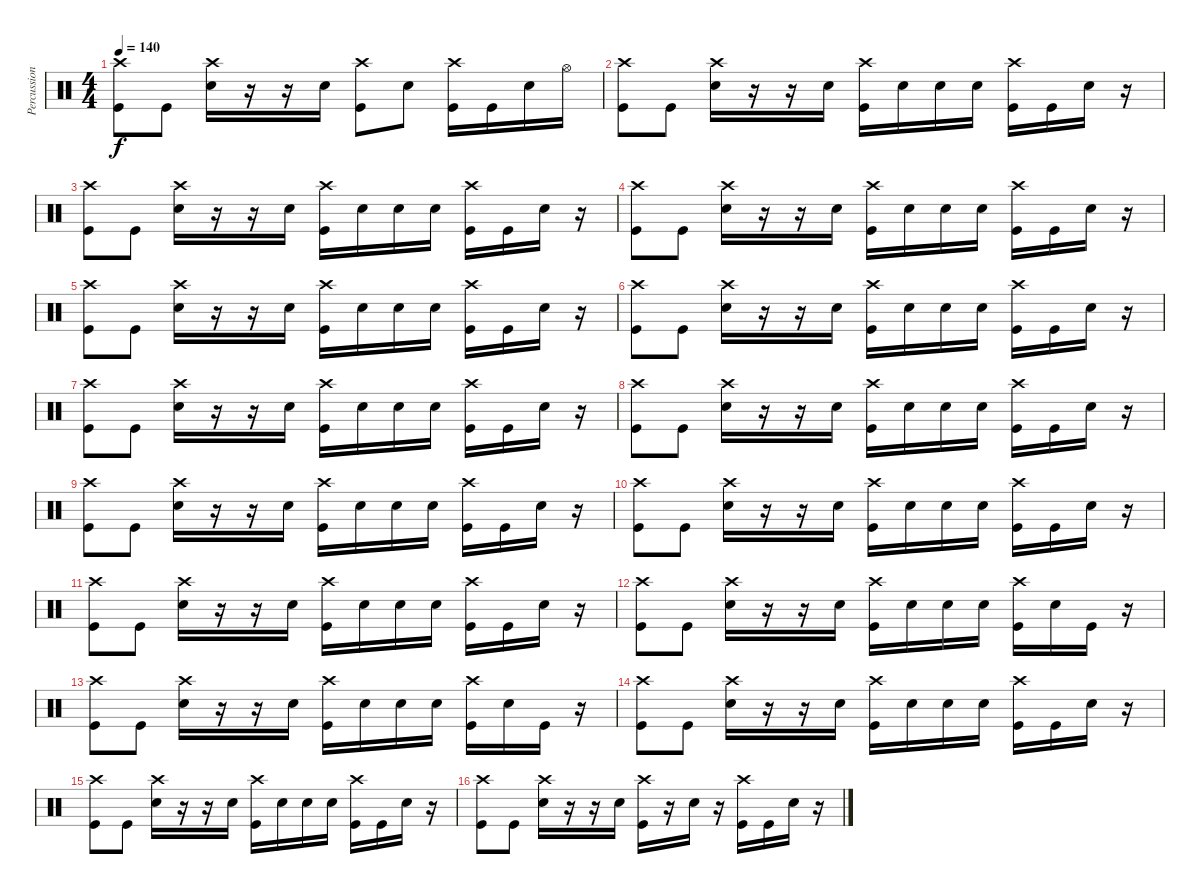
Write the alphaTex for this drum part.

\track ("Percussion" "Percussion") {instrument percussion}
\staff {score}
\articulation defaults
\ts (4 4)
\tempo 140
\clef neutral
\ks c
("Crash high (hit)" "Kick (hit)").8{dy f} "Kick (hit)".8 ("Crash high (hit)" "Snare (hit) 2").16 r.16 r.16 "Snare (hit) 2".16 ("Crash high (hit)" "Kick (hit)").8 "Snare (hit) 2".8 ("Crash high (hit)" "Kick (hit)").16 "Kick (hit)".16 "Snare (hit) 2".16 "Hi-Hat (open)".16 |
("Crash high (hit)" "Kick (hit)").8 "Kick (hit)".8 ("Crash high (hit)" "Snare (hit) 2").16 r.16 r.16 "Snare (hit) 2".16 ("Crash high (hit)" "Kick (hit)").16 "Snare (hit) 2".16 "Snare (hit) 2".16 "Snare (hit) 2".16 ("Crash high (hit)" "Kick (hit)").16 "Kick (hit)".16 "Snare (hit) 2".16 r.16 |
("Crash high (hit)" "Kick (hit)").8 "Kick (hit)".8 ("Crash high (hit)" "Snare (hit) 2").16 r.16 r.16 "Snare (hit) 2".16 ("Crash high (hit)" "Kick (hit)").16 "Snare (hit) 2".16 "Snare (hit) 2".16 "Snare (hit) 2".16 ("Crash high (hit)" "Kick (hit)").16 "Kick (hit)".16 "Snare (hit) 2".16 r.16 |
("Crash high (hit)" "Kick (hit)").8 "Kick (hit)".8 ("Crash high (hit)" "Snare (hit) 2").16 r.16 r.16 "Snare (hit) 2".16 ("Crash high (hit)" "Kick (hit)").16 "Snare (hit) 2".16 "Snare (hit) 2".16 "Snare (hit) 2".16 ("Crash high (hit)" "Kick (hit)").16 "Kick (hit)".16 "Snare (hit) 2".16 r.16 |
("Crash high (hit)" "Kick (hit)").8 "Kick (hit)".8 ("Crash high (hit)" "Snare (hit) 2").16 r.16 r.16 "Snare (hit) 2".16 ("Crash high (hit)" "Kick (hit)").16 "Snare (hit) 2".16 "Snare (hit) 2".16 "Snare (hit) 2".16 ("Crash high (hit)" "Kick (hit)").16 "Kick (hit)".16 "Snare (hit) 2".16 r.16 |
("Crash high (hit)" "Kick (hit)").8 "Kick (hit)".8 ("Crash high (hit)" "Snare (hit) 2").16 r.16 r.16 "Snare (hit) 2".16 ("Crash high (hit)" "Kick (hit)").16 "Snare (hit) 2".16 "Snare (hit) 2".16 "Snare (hit) 2".16 ("Crash high (hit)" "Kick (hit)").16 "Kick (hit)".16 "Snare (hit) 2".16 r.16 |
("Crash high (hit)" "Kick (hit)").8 "Kick (hit)".8 ("Crash high (hit)" "Snare (hit) 2").16 r.16 r.16 "Snare (hit) 2".16 ("Crash high (hit)" "Kick (hit)").16 "Snare (hit) 2".16 "Snare (hit) 2".16 "Snare (hit) 2".16 ("Crash high (hit)" "Kick (hit)").16 "Kick (hit)".16 "Snare (hit) 2".16 r.16 |
("Crash high (hit)" "Kick (hit)").8 "Kick (hit)".8 ("Crash high (hit)" "Snare (hit) 2").16 r.16 r.16 "Snare (hit) 2".16 ("Crash high (hit)" "Kick (hit)").16 "Snare (hit) 2".16 "Snare (hit) 2".16 "Snare (hit) 2".16 ("Crash high (hit)" "Kick (hit)").16 "Kick (hit)".16 "Snare (hit) 2".16 r.16 |
("Crash high (hit)" "Kick (hit)").8 "Kick (hit)".8 ("Crash high (hit)" "Snare (hit) 2").16 r.16 r.16 "Snare (hit) 2".16 ("Crash high (hit)" "Kick (hit)").16 "Snare (hit) 2".16 "Snare (hit) 2".16 "Snare (hit) 2".16 ("Crash high (hit)" "Kick (hit)").16 "Kick (hit)".16 "Snare (hit) 2".16 r.16 |
("Crash high (hit)" "Kick (hit)").8 "Kick (hit)".8 ("Crash high (hit)" "Snare (hit) 2").16 r.16 r.16 "Snare (hit) 2".16 ("Crash high (hit)" "Kick (hit)").16 "Snare (hit) 2".16 "Snare (hit) 2".16 "Snare (hit) 2".16 ("Crash high (hit)" "Kick (hit)").16 "Kick (hit)".16 "Snare (hit) 2".16 r.16 |
("Crash high (hit)" "Kick (hit)").8 "Kick (hit)".8 ("Crash high (hit)" "Snare (hit) 2").16 r.16 r.16 "Snare (hit) 2".16 ("Crash high (hit)" "Kick (hit)").16 "Snare (hit) 2".16 "Snare (hit) 2".16 "Snare (hit) 2".16 ("Crash high (hit)" "Kick (hit)").16 "Kick (hit)".16 "Snare (hit) 2".16 r.16 |
("Crash high (hit)" "Kick (hit)").8 "Kick (hit)".8 ("Crash high (hit)" "Snare (hit) 2").16 r.16 r.16 "Snare (hit) 2".16 ("Crash high (hit)" "Kick (hit)").16 "Snare (hit) 2".16 "Snare (hit) 2".16 "Snare (hit) 2".16 ("Crash high (hit)" "Kick (hit)").16 "Snare (hit) 2".16 "Kick (hit)".16 r.16 |
("Crash high (hit)" "Kick (hit)").8 "Kick (hit)".8 ("Crash high (hit)" "Snare (hit) 2").16 r.16 r.16 "Snare (hit) 2".16 ("Crash high (hit)" "Kick (hit)").16 "Snare (hit) 2".16 "Snare (hit) 2".16 "Snare (hit) 2".16 ("Crash high (hit)" "Kick (hit)").16 "Snare (hit) 2".16 "Kick (hit)".16 r.16 |
("Crash high (hit)" "Kick (hit)").8 "Kick (hit)".8 ("Crash high (hit)" "Snare (hit) 2").16 r.16 r.16 "Snare (hit) 2".16 ("Crash high (hit)" "Kick (hit)").16 "Snare (hit) 2".16 "Snare (hit) 2".16 "Snare (hit) 2".16 ("Crash high (hit)" "Kick (hit)").16 "Kick (hit)".16 "Snare (hit) 2".16 r.16 |
("Crash high (hit)" "Kick (hit)").8 "Kick (hit)".8 ("Crash high (hit)" "Snare (hit) 2").16 r.16 r.16 "Snare (hit) 2".16 ("Crash high (hit)" "Kick (hit)").16 "Snare (hit) 2".16 "Snare (hit) 2".16 "Snare (hit) 2".16 ("Crash high (hit)" "Kick (hit)").16 "Kick (hit)".16 "Snare (hit) 2".16 r.16 |
("Crash high (hit)" "Kick (hit)").8 "Kick (hit)".8 ("Crash high (hit)" "Snare (hit) 2").16 r.16 r.16 "Snare (hit) 2".16 ("Crash high (hit)" "Kick (hit)").16 r.16 "Snare (hit) 2".16 r.16 ("Crash high (hit)" "Kick (hit)").16 "Kick (hit)".16 "Snare (hit) 2".16 r.16
